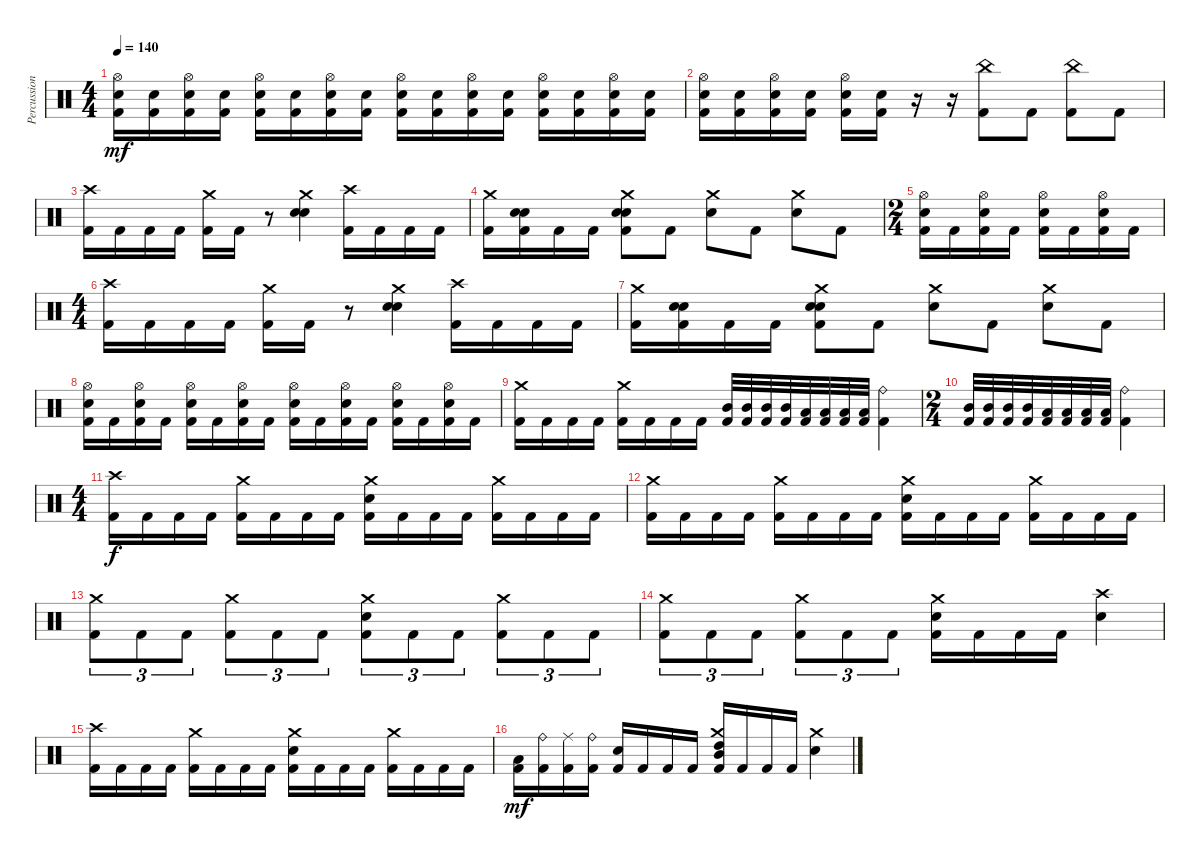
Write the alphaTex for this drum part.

\track ("Percussion" "Percussion") {instrument percussion}
\staff {score}
\articulation defaults
\ts (4 4)
\tempo 140
\clef neutral
\ks c
("Hi-Hat (open)" "Electric Snare (hit)" "Kick (hit) 2").16{dy mf} ("Electric Snare (hit)" "Kick (hit) 2").16 ("Hi-Hat (open)" "Electric Snare (hit)" "Kick (hit) 2").16 ("Electric Snare (hit)" "Kick (hit) 2").16 ("Hi-Hat (open)" "Electric Snare (hit)" "Kick (hit) 2").16 ("Electric Snare (hit)" "Kick (hit) 2").16 ("Hi-Hat (open)" "Electric Snare (hit)" "Kick (hit) 2").16 ("Electric Snare (hit)" "Kick (hit) 2").16 ("Hi-Hat (open)" "Electric Snare (hit)" "Kick (hit) 2").16 ("Electric Snare (hit)" "Kick (hit) 2").16 ("Hi-Hat (open)" "Electric Snare (hit)" "Kick (hit) 2").16 ("Electric Snare (hit)" "Kick (hit) 2").16 ("Hi-Hat (open)" "Electric Snare (hit)" "Kick (hit) 2").16 ("Electric Snare (hit)" "Kick (hit) 2").16 ("Hi-Hat (open)" "Electric Snare (hit)" "Kick (hit) 2").16 ("Electric Snare (hit)" "Kick (hit) 2").16 |
("Hi-Hat (open)" "Electric Snare (hit)" "Kick (hit) 2").16 ("Electric Snare (hit)" "Kick (hit) 2").16 ("Hi-Hat (open)" "Electric Snare (hit)" "Kick (hit) 2").16 ("Electric Snare (hit)" "Kick (hit) 2").16 ("Hi-Hat (open)" "Electric Snare (hit)" "Kick (hit) 2").16 ("Electric Snare (hit)" "Kick (hit) 2").16 r.16 r.16 ("China (hit)" "Kick (hit) 2").8 "Kick (hit) 2".8 ("China (hit)" "Kick (hit) 2").8 "Kick (hit) 2".8 |
("Crash high (hit)" "Kick (hit) 2").16 "Kick (hit) 2".16 "Kick (hit) 2".16 "Kick (hit) 2".16 ("Crash medium (hit)" "Kick (hit) 2").16 "Kick (hit) 2".16 r.8 ("Crash medium (hit)" "Electric Snare (hit)" "Electric Snare (hit)").4 ("Crash high (hit)" "Kick (hit) 2").16 "Kick (hit) 2".16 "Kick (hit) 2".16 "Kick (hit) 2".16 |
("Kick (hit) 2" "Crash medium (hit)").16 ("Electric Snare (hit)" "Kick (hit) 2" "Electric Snare (hit)").16 "Kick (hit) 2".16 "Kick (hit) 2".16 ("Electric Snare (hit)" "Kick (hit) 2" "Crash medium (hit)" "Electric Snare (hit)").8 "Kick (hit) 2".8 ("Crash medium (hit)" "Electric Snare (hit)").8 "Kick (hit) 2".8 ("Crash medium (hit)" "Electric Snare (hit)").8 "Kick (hit) 2".8 |
\ts (2 4)
("Hi-Hat (open)" "Electric Snare (hit)" "Kick (hit) 2").16 "Kick (hit) 2".16 ("Hi-Hat (open)" "Electric Snare (hit)" "Kick (hit) 2").16 "Kick (hit) 2".16 ("Hi-Hat (open)" "Electric Snare (hit)" "Kick (hit) 2").16 "Kick (hit) 2".16 ("Hi-Hat (open)" "Electric Snare (hit)" "Kick (hit) 2").16 "Kick (hit) 2".16 |
\ts (4 4)
("Crash high (hit)" "Kick (hit) 2").16 "Kick (hit) 2".16 "Kick (hit) 2".16 "Kick (hit) 2".16 ("Crash medium (hit)" "Kick (hit) 2").16 "Kick (hit) 2".16 r.8 ("Crash medium (hit)" "Electric Snare (hit)" "Electric Snare (hit)").4 ("Crash high (hit)" "Kick (hit) 2").16 "Kick (hit) 2".16 "Kick (hit) 2".16 "Kick (hit) 2".16 |
("Kick (hit) 2" "Crash medium (hit)").16 ("Electric Snare (hit)" "Kick (hit) 2" "Electric Snare (hit)").16 "Kick (hit) 2".16 "Kick (hit) 2".16 ("Electric Snare (hit)" "Kick (hit) 2" "Crash medium (hit)" "Electric Snare (hit)").8 "Kick (hit) 2".8 ("Crash medium (hit)" "Electric Snare (hit)").8 "Kick (hit) 2".8 ("Crash medium (hit)" "Electric Snare (hit)").8 "Kick (hit) 2".8 |
("Hi-Hat (open)" "Electric Snare (hit)" "Kick (hit) 2").16 "Kick (hit) 2".16 ("Hi-Hat (open)" "Electric Snare (hit)" "Kick (hit) 2").16 "Kick (hit) 2".16 ("Hi-Hat (open)" "Electric Snare (hit)" "Kick (hit) 2").16 "Kick (hit) 2".16 ("Hi-Hat (open)" "Electric Snare (hit)" "Kick (hit) 2").16 "Kick (hit) 2".16 ("Hi-Hat (open)" "Electric Snare (hit)" "Kick (hit) 2").16 "Kick (hit) 2".16 ("Hi-Hat (open)" "Electric Snare (hit)" "Kick (hit) 2").16 "Kick (hit) 2".16 ("Hi-Hat (open)" "Electric Snare (hit)" "Kick (hit) 2").16 "Kick (hit) 2".16 ("Hi-Hat (open)" "Electric Snare (hit)" "Kick (hit) 2").16 "Kick (hit) 2".16 |
("Crash medium (hit)" "Kick (hit) 2").16 "Kick (hit) 2".16 "Kick (hit) 2".16 "Kick (hit) 2".16 ("Crash medium (hit)" "Kick (hit) 2").16 "Kick (hit) 2".16 "Kick (hit) 2".16 "Kick (hit) 2".16 ("Mid Tom (hit)" "Kick (hit) 2").32 ("Mid Tom (hit)" "Kick (hit) 2").32 ("Mid Tom (hit)" "Kick (hit) 2").32 ("Mid Tom (hit)" "Kick (hit) 2").32 ("Low Tom (hit)" "Kick (hit) 2").32 ("Low Tom (hit)" "Kick (hit) 2").32 ("Low Tom (hit)" "Kick (hit) 2").32 ("Low Tom (hit)" "Kick (hit) 2").32 ("Ride (bell)" "Kick (hit) 2").4 |
\ts (2 4)
("Mid Tom (hit)" "Kick (hit) 2").32 ("Mid Tom (hit)" "Kick (hit) 2").32 ("Mid Tom (hit)" "Kick (hit) 2").32 ("Mid Tom (hit)" "Kick (hit) 2").32 ("Low Tom (hit)" "Kick (hit) 2").32 ("Low Tom (hit)" "Kick (hit) 2").32 ("Low Tom (hit)" "Kick (hit) 2").32 ("Low Tom (hit)" "Kick (hit) 2").32 ("Ride (bell)" "Kick (hit) 2").4 |
\ts (4 4)
("Crash high (hit)" "Kick (hit) 2").16{dy f} "Kick (hit) 2".16 "Kick (hit) 2".16 "Kick (hit) 2".16 ("Crash medium (hit)" "Kick (hit) 2").16 "Kick (hit) 2".16 "Kick (hit) 2".16 "Kick (hit) 2".16 ("Crash medium (hit)" "Electric Snare (hit)" "Kick (hit) 2").16 "Kick (hit) 2".16 "Kick (hit) 2".16 "Kick (hit) 2".16 ("Crash medium (hit)" "Kick (hit) 2").16 "Kick (hit) 2".16 "Kick (hit) 2".16 "Kick (hit) 2".16 |
("Crash medium (hit)" "Kick (hit) 2").16 "Kick (hit) 2".16 "Kick (hit) 2".16 "Kick (hit) 2".16 ("Crash medium (hit)" "Kick (hit) 2").16 "Kick (hit) 2".16 "Kick (hit) 2".16 "Kick (hit) 2".16 ("Crash medium (hit)" "Electric Snare (hit)" "Kick (hit) 2").16 "Kick (hit) 2".16 "Kick (hit) 2".16 "Kick (hit) 2".16 ("Crash medium (hit)" "Kick (hit) 2").16 "Kick (hit) 2".16 "Kick (hit) 2".16 "Kick (hit) 2".16 |
("Crash medium (hit)" "Kick (hit) 2").8{tu (3 2)} "Kick (hit) 2".8{tu (3 2)} "Kick (hit) 2".8{tu (3 2)} ("Crash medium (hit)" "Kick (hit) 2").8{tu (3 2)} "Kick (hit) 2".8{tu (3 2)} "Kick (hit) 2".8{tu (3 2)} ("Crash medium (hit)" "Electric Snare (hit)" "Kick (hit) 2").8{tu (3 2)} "Kick (hit) 2".8{tu (3 2)} "Kick (hit) 2".8{tu (3 2)} ("Crash medium (hit)" "Kick (hit) 2").8{tu (3 2)} "Kick (hit) 2".8{tu (3 2)} "Kick (hit) 2".8{tu (3 2)} |
("Crash medium (hit)" "Kick (hit) 2").8{tu (3 2)} "Kick (hit) 2".8{tu (3 2)} "Kick (hit) 2".8{tu (3 2)} ("Crash medium (hit)" "Kick (hit) 2").8{tu (3 2)} "Kick (hit) 2".8{tu (3 2)} "Kick (hit) 2".8{tu (3 2)} ("Crash medium (hit)" "Electric Snare (hit)" "Kick (hit) 2").16 "Kick (hit) 2".16 "Kick (hit) 2".16 "Kick (hit) 2".16 ("Crash high (hit)" "Electric Snare (hit)").4 |
("Crash high (hit)" "Kick (hit) 2").16 "Kick (hit) 2".16 "Kick (hit) 2".16 "Kick (hit) 2".16 ("Crash medium (hit)" "Kick (hit) 2").16 "Kick (hit) 2".16 "Kick (hit) 2".16 "Kick (hit) 2".16 ("Crash medium (hit)" "Electric Snare (hit)" "Kick (hit) 2").16 "Kick (hit) 2".16 "Kick (hit) 2".16 "Kick (hit) 2".16 ("Crash medium (hit)" "Kick (hit) 2").16 "Kick (hit) 2".16 "Kick (hit) 2".16 "Kick (hit) 2".16 |
("Low Tom (hit)" "Kick (hit) 2").16{dy mf} ("Ride (bell)" "Kick (hit) 2").16 ("Ride (middle)" "Kick (hit) 2").16 ("Ride (bell)" "Kick (hit) 2").16 ("Electric Snare (hit)" "Kick (hit) 2").16 "Kick (hit) 2".16 "Kick (hit) 2".16 "Kick (hit) 2".16 ("Crash medium (hit)" "High Tom (hit)" "Mid Tom (hit)" "Kick (hit) 2").16 "Kick (hit) 2".16 "Kick (hit) 2".16 "Kick (hit) 2".16 ("Crash medium (hit)" "Electric Snare (hit)").4
